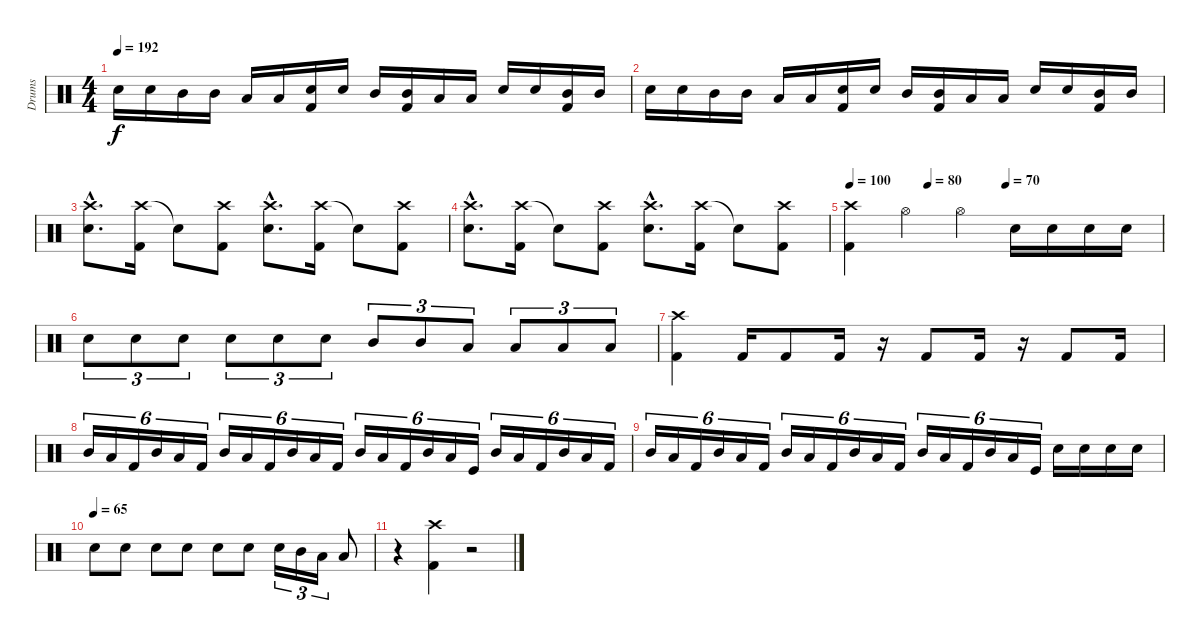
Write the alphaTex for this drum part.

\track ("Drums" "Drums") {instrument percussion}
\staff {score}
\articulation defaults
\ts (4 4)
\tempo 192
\clef neutral
\ks c "Snare (hit) 2".16{dy f} "Snare (hit) 2".16 "Mid Tom (hit)".16 "Mid Tom (hit)".16 "Low Floor Tom (hit)".16 "Low Floor Tom (hit)".16
("Snare (hit) 2" "Kick (hit) 2").16 "Snare (hit) 2".16 "Mid Tom (hit)".16 ("Mid Tom (hit)" "Kick (hit) 2").16 "Low Floor Tom (hit)".16 "Low Floor Tom (hit)".16 "Snare (hit) 2".16 "Snare (hit) 2".16 ("Mid Tom (hit)" "Kick (hit) 2").16 "Mid Tom (hit)".16 |
"Snare (hit) 2".16 "Snare (hit) 2".16 "Mid Tom (hit)".16 "Mid Tom (hit)".16 "Low Floor Tom (hit)".16 "Low Floor Tom (hit)".16 ("Snare (hit) 2" "Kick (hit) 2").16 "Snare (hit) 2".16 "Mid Tom (hit)".16 ("Mid Tom (hit)" "Kick (hit) 2").16 "Low Floor Tom (hit)".16 "Low Floor Tom (hit)".16 "Snare (hit) 2".16 "Snare (hit) 2".16 ("Mid Tom (hit)" "Kick (hit) 2").16 "Mid Tom (hit)".16 |
("Crash high (hit)"{hac} "Snare (hit) 2"{hac}).8{d} ("Crash high (hit)" "Kick (hit) 2").16 "Snare (hit)"{t}.8 ("Crash high (hit)" "Kick (hit) 2").8 ("Crash high (hit)"{hac} "Snare (hit) 2"{hac}).8{d} ("Crash high (hit)" "Kick (hit) 2").16 "Snare (hit)"{t}.8 ("Crash high (hit)" "Kick (hit) 2").8 |
("Crash high (hit)"{hac} "Snare (hit) 2"{hac}).8{d} ("Crash high (hit)" "Kick (hit) 2").16 "Snare (hit)"{t}.8 ("Crash high (hit)" "Kick (hit) 2").8 ("Crash high (hit)"{hac} "Snare (hit) 2"{hac}).8{d} ("Crash high (hit)" "Kick (hit) 2").16 "Snare (hit)"{t}.8 ("Crash high (hit)" "Kick (hit) 2").8 |
\tempo 100
\tempo (80 0.25)
\tempo (70 0.5)
("Crash high (hit)" "Kick (hit) 2").4 "Hi-Hat (open)".4 "Hi-Hat (open)".4 "Snare (hit) 2".16 "Snare (hit) 2".16 "Snare (hit) 2".16 "Snare (hit) 2".16 |
"Snare (hit) 2".8{tu (3 2)} "Snare (hit) 2".8{tu (3 2)} "Snare (hit) 2".8{tu (3 2)} "Snare (hit) 2".8{tu (3 2)} "Snare (hit) 2".8{tu (3 2)} "Snare (hit) 2".8{tu (3 2)} "Mid Tom (hit)".8{tu (3 2)} "Mid Tom (hit)".8{tu (3 2)} "Low Floor Tom (hit)".8{tu (3 2)} "Low Floor Tom (hit)".8{tu (3 2)} "Low Floor Tom (hit)".8{tu (3 2)} "Low Floor Tom (hit)".8{tu (3 2)} |
("Crash high (hit)" "Kick (hit) 2").4 "Kick (hit) 2".16 "Kick (hit) 2".8 "Kick (hit) 2".16 r.16 "Kick (hit) 2".8 "Kick (hit) 2".16 r.16 "Kick (hit) 2".8 "Kick (hit) 2".16 |
"Mid Tom (hit)".16{tu (6 4)} "Low Floor Tom (hit)".16{tu (6 4)} "Kick (hit) 2".16{tu (6 4)} "Mid Tom (hit)".16{tu (6 4)} "Low Floor Tom (hit)".16{tu (6 4)} "Kick (hit) 2".16{tu (6 4)} "Mid Tom (hit)".16{tu (6 4)} "Low Floor Tom (hit)".16{tu (6 4)} "Kick (hit) 2".16{tu (6 4)} "Mid Tom (hit)".16{tu (6 4)} "Low Floor Tom (hit)".16{tu (6 4)} "Kick (hit) 2".16{tu (6 4)} "Mid Tom (hit)".16{tu (6 4)} "Low Floor Tom (hit)".16{tu (6 4)} "Kick (hit) 2".16{tu (6 4)} "Mid Tom (hit)".16{tu (6 4)} "Low Floor Tom (hit)".16{tu (6 4)} "Kick (hit)".16{tu (6 4)} "Mid Tom (hit)".16{tu (6 4)} "Low Floor Tom (hit)".16{tu (6 4)} "Kick (hit) 2".16{tu (6 4)} "Mid Tom (hit)".16{tu (6 4)} "Low Floor Tom (hit)".16{tu (6 4)} "Kick (hit) 2".16{tu (6 4)} |
"Mid Tom (hit)".16{tu (6 4)} "Low Floor Tom (hit)".16{tu (6 4)} "Kick (hit) 2".16{tu (6 4)} "Mid Tom (hit)".16{tu (6 4)} "Low Floor Tom (hit)".16{tu (6 4)} "Kick (hit) 2".16{tu (6 4)} "Mid Tom (hit)".16{tu (6 4)} "Low Floor Tom (hit)".16{tu (6 4)} "Kick (hit) 2".16{tu (6 4)} "Mid Tom (hit)".16{tu (6 4)} "Low Floor Tom (hit)".16{tu (6 4)} "Kick (hit) 2".16{tu (6 4)} "Mid Tom (hit)".16{tu (6 4)} "Low Floor Tom (hit)".16{tu (6 4)} "Kick (hit) 2".16{tu (6 4)} "Mid Tom (hit)".16{tu (6 4)} "Low Floor Tom (hit)".16{tu (6 4)} "Kick (hit)".16{tu (6 4)} "Snare (hit) 2".16 "Snare (hit) 2".16 "Snare (hit) 2".16 "Snare (hit) 2".16 |
\tempo (65)
"Snare (hit) 2".8 "Snare (hit) 2".8 "Snare (hit) 2".8 "Snare (hit) 2".8 "Snare (hit) 2".8 "Snare (hit) 2".8 "Snare (hit) 2".16{tu (3 2)} "Mid Tom (hit)".16{tu (3 2)} "Low Floor Tom (hit)".16{tu (3 2)} "Low Floor Tom (hit)".8 |
r.4 ("Crash high (hit)" "Kick (hit) 2").4 r.2
